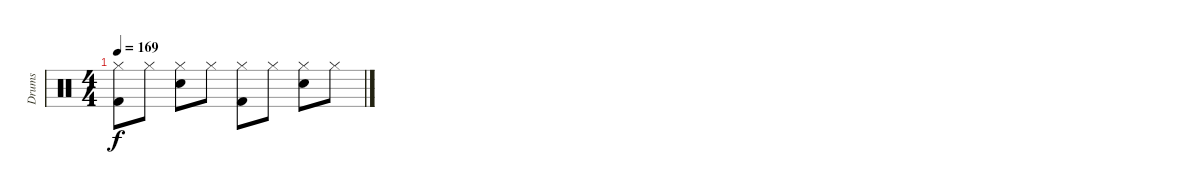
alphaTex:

\track ("Drums" "Drums") {instrument percussion}
\staff {score}
\articulation defaults
\ts (4 4)
\tempo 169
\clef neutral
\ks c
("Hi-Hat (closed)" "Kick (hit) 2").8{dy f} "Hi-Hat (closed)".8 ("Hi-Hat (closed)" "Snare (hit) 2").8 "Hi-Hat (closed)".8 ("Hi-Hat (closed)" "Kick (hit) 2").8 "Hi-Hat (closed)".8 ("Hi-Hat (closed)" "Snare (hit) 2").8 "Hi-Hat (closed)".8
